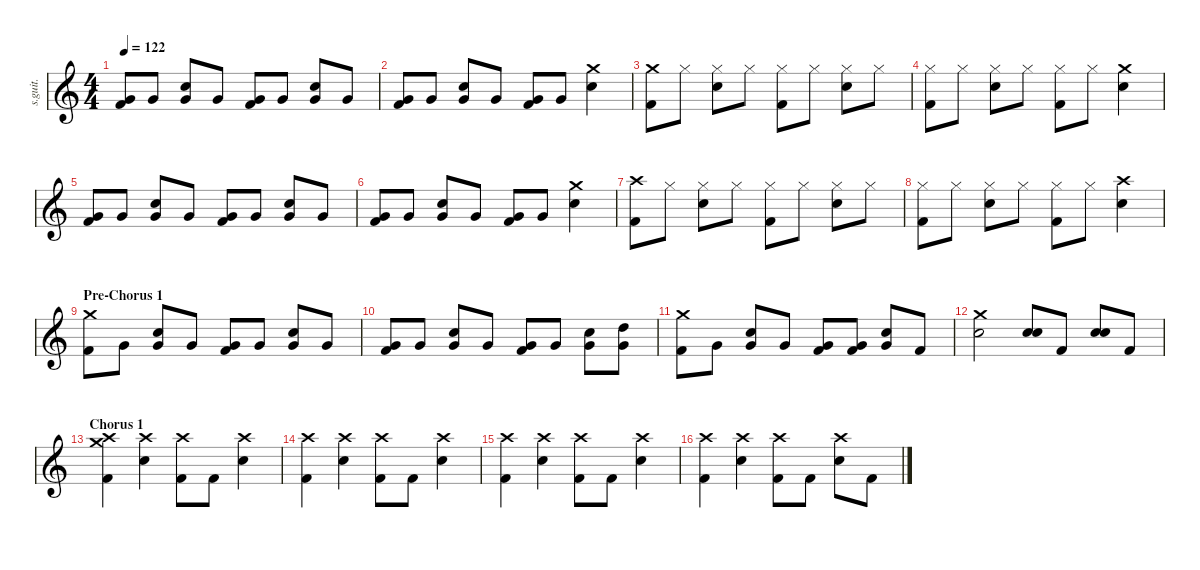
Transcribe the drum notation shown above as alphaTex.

\defaultSystemsLayout 4
\hideDynamics
\bracketExtendMode nobrackets
\track ("Neil Sanderson" "s.guit.") {instrument percussion}
\staff {score}
\articulation defaults
\ts (4 4)
\tempo 122
\clef g2
\ks c
("Very Low Tom (hit)" "Kick (hit) 2").8{lyrics (0 "") lyrics (1 "") lyrics (2 "") lyrics (3 "") lyrics (4 "") dy f} "Very Low Tom (hit)".8{lyrics (0 "") lyrics (1 "") lyrics (2 "") lyrics (3 "") lyrics (4 "")} ("Snare (hit) 2" "Very Low Tom (hit)").8{lyrics (0 "") lyrics (1 "") lyrics (2 "") lyrics (3 "") lyrics (4 "")} "Very Low Tom (hit)".8{lyrics (0 "") lyrics (1 "") lyrics (2 "") lyrics (3 "") lyrics (4 "")} ("Very Low Tom (hit)" "Kick (hit) 2").8{lyrics (0 "") lyrics (1 "") lyrics (2 "") lyrics (3 "") lyrics (4 "")} "Very Low Tom (hit)".8{lyrics (0 "") lyrics (1 "") lyrics (2 "") lyrics (3 "") lyrics (4 "")} ("Snare (hit) 2" "Very Low Tom (hit)").8{lyrics (0 "") lyrics (1 "") lyrics (2 "") lyrics (3 "") lyrics (4 "")} "Very Low Tom (hit)".8{lyrics (0 "") lyrics (1 "") lyrics (2 "") lyrics (3 "") lyrics (4 "")} |
("Very Low Tom (hit)" "Kick (hit) 2").8{lyrics (0 "") lyrics (1 "") lyrics (2 "") lyrics (3 "") lyrics (4 "")} "Very Low Tom (hit)".8{lyrics (0 "") lyrics (1 "") lyrics (2 "") lyrics (3 "") lyrics (4 "")} ("Snare (hit) 2" "Very Low Tom (hit)").8{lyrics (0 "") lyrics (1 "") lyrics (2 "") lyrics (3 "") lyrics (4 "")} "Very Low Tom (hit)".8{lyrics (0 "") lyrics (1 "") lyrics (2 "") lyrics (3 "") lyrics (4 "")} ("Very Low Tom (hit)" "Kick (hit) 2").8{lyrics (0 "") lyrics (1 "") lyrics (2 "") lyrics (3 "") lyrics (4 "")} "Very Low Tom (hit)".8{lyrics (0 "") lyrics (1 "") lyrics (2 "") lyrics (3 "") lyrics (4 "")} ("Crash medium (hit)" "Snare (hit) 2").4{lyrics (0 "") lyrics (1 "") lyrics (2 "") lyrics (3 "") lyrics (4 "")} |
("Crash medium (hit)" "Kick (hit) 2").8{lyrics (0 "") lyrics (1 "") lyrics (2 "") lyrics (3 "") lyrics (4 "")} "Hi-Hat (closed)".8{lyrics (0 "") lyrics (1 "") lyrics (2 "") lyrics (3 "") lyrics (4 "")} ("Hi-Hat (closed)" "Snare (hit) 2").8{lyrics (0 "") lyrics (1 "") lyrics (2 "") lyrics (3 "") lyrics (4 "")} "Hi-Hat (closed)".8{lyrics (0 "") lyrics (1 "") lyrics (2 "") lyrics (3 "") lyrics (4 "")} ("Hi-Hat (closed)" "Kick (hit) 2").8{lyrics (0 "") lyrics (1 "") lyrics (2 "") lyrics (3 "") lyrics (4 "")} "Hi-Hat (closed)".8{lyrics (0 "") lyrics (1 "") lyrics (2 "") lyrics (3 "") lyrics (4 "")} ("Hi-Hat (closed)" "Snare (hit) 2").8{lyrics (0 "") lyrics (1 "") lyrics (2 "") lyrics (3 "") lyrics (4 "")} "Hi-Hat (closed)".8{lyrics (0 "") lyrics (1 "") lyrics (2 "") lyrics (3 "") lyrics (4 "")} |
("Hi-Hat (closed)" "Kick (hit) 2").8{lyrics (0 "") lyrics (1 "") lyrics (2 "") lyrics (3 "") lyrics (4 "")} "Hi-Hat (closed)".8{lyrics (0 "") lyrics (1 "") lyrics (2 "") lyrics (3 "") lyrics (4 "")} ("Hi-Hat (closed)" "Snare (hit) 2").8{lyrics (0 "") lyrics (1 "") lyrics (2 "") lyrics (3 "") lyrics (4 "")} "Hi-Hat (closed)".8{lyrics (0 "") lyrics (1 "") lyrics (2 "") lyrics (3 "") lyrics (4 "")} ("Hi-Hat (closed)" "Kick (hit) 2").8{lyrics (0 "") lyrics (1 "") lyrics (2 "") lyrics (3 "") lyrics (4 "")} "Hi-Hat (closed)".8{lyrics (0 "") lyrics (1 "") lyrics (2 "") lyrics (3 "") lyrics (4 "")} ("Crash medium (hit)" "Snare (hit) 2").4{lyrics (0 "") lyrics (1 "") lyrics (2 "") lyrics (3 "") lyrics (4 "")} |
("Very Low Tom (hit)" "Kick (hit) 2").8{lyrics (0 "") lyrics (1 "") lyrics (2 "") lyrics (3 "") lyrics (4 "")} "Very Low Tom (hit)".8{lyrics (0 "") lyrics (1 "") lyrics (2 "") lyrics (3 "") lyrics (4 "")} ("Snare (hit) 2" "Very Low Tom (hit)").8{lyrics (0 "") lyrics (1 "") lyrics (2 "") lyrics (3 "") lyrics (4 "")} "Very Low Tom (hit)".8{lyrics (0 "") lyrics (1 "") lyrics (2 "") lyrics (3 "") lyrics (4 "")} ("Very Low Tom (hit)" "Kick (hit) 2").8{lyrics (0 "") lyrics (1 "") lyrics (2 "") lyrics (3 "") lyrics (4 "")} "Very Low Tom (hit)".8{lyrics (0 "") lyrics (1 "") lyrics (2 "") lyrics (3 "") lyrics (4 "")} ("Snare (hit) 2" "Very Low Tom (hit)").8{lyrics (0 "") lyrics (1 "") lyrics (2 "") lyrics (3 "") lyrics (4 "")} "Very Low Tom (hit)".8{lyrics (0 "") lyrics (1 "") lyrics (2 "") lyrics (3 "") lyrics (4 "")} |
("Very Low Tom (hit)" "Kick (hit) 2").8{lyrics (0 "") lyrics (1 "") lyrics (2 "") lyrics (3 "") lyrics (4 "")} "Very Low Tom (hit)".8{lyrics (0 "") lyrics (1 "") lyrics (2 "") lyrics (3 "") lyrics (4 "")} ("Snare (hit) 2" "Very Low Tom (hit)").8{lyrics (0 "") lyrics (1 "") lyrics (2 "") lyrics (3 "") lyrics (4 "")} "Very Low Tom (hit)".8{lyrics (0 "") lyrics (1 "") lyrics (2 "") lyrics (3 "") lyrics (4 "")} ("Very Low Tom (hit)" "Kick (hit) 2").8{lyrics (0 "") lyrics (1 "") lyrics (2 "") lyrics (3 "") lyrics (4 "")} "Very Low Tom (hit)".8{lyrics (0 "") lyrics (1 "") lyrics (2 "") lyrics (3 "") lyrics (4 "")} ("Crash medium (hit)" "Snare (hit) 2").4{lyrics (0 "") lyrics (1 "") lyrics (2 "") lyrics (3 "") lyrics (4 "")} |
("Crash high (hit)" "Kick (hit) 2").8{lyrics (0 "") lyrics (1 "") lyrics (2 "") lyrics (3 "") lyrics (4 "")} "Hi-Hat (closed)".8{lyrics (0 "") lyrics (1 "") lyrics (2 "") lyrics (3 "") lyrics (4 "")} ("Hi-Hat (closed)" "Snare (hit) 2").8{lyrics (0 "") lyrics (1 "") lyrics (2 "") lyrics (3 "") lyrics (4 "")} "Hi-Hat (closed)".8{lyrics (0 "") lyrics (1 "") lyrics (2 "") lyrics (3 "") lyrics (4 "")} ("Hi-Hat (closed)" "Kick (hit) 2").8{lyrics (0 "") lyrics (1 "") lyrics (2 "") lyrics (3 "") lyrics (4 "")} "Hi-Hat (closed)".8{lyrics (0 "") lyrics (1 "") lyrics (2 "") lyrics (3 "") lyrics (4 "")} ("Hi-Hat (closed)" "Snare (hit) 2").8{lyrics (0 "") lyrics (1 "") lyrics (2 "") lyrics (3 "") lyrics (4 "")} "Hi-Hat (closed)".8{lyrics (0 "") lyrics (1 "") lyrics (2 "") lyrics (3 "") lyrics (4 "")} |
("Hi-Hat (closed)" "Kick (hit) 2").8{lyrics (0 "") lyrics (1 "") lyrics (2 "") lyrics (3 "") lyrics (4 "")} "Hi-Hat (closed)".8{lyrics (0 "") lyrics (1 "") lyrics (2 "") lyrics (3 "") lyrics (4 "")} ("Hi-Hat (closed)" "Snare (hit) 2").8{lyrics (0 "") lyrics (1 "") lyrics (2 "") lyrics (3 "") lyrics (4 "")} "Hi-Hat (closed)".8{lyrics (0 "") lyrics (1 "") lyrics (2 "") lyrics (3 "") lyrics (4 "")} ("Hi-Hat (closed)" "Kick (hit) 2").8{lyrics (0 "") lyrics (1 "") lyrics (2 "") lyrics (3 "") lyrics (4 "")} "Hi-Hat (closed)".8{lyrics (0 "") lyrics (1 "") lyrics (2 "") lyrics (3 "") lyrics (4 "")} ("Crash high (hit)" "Snare (hit) 2").4{lyrics (0 "") lyrics (1 "") lyrics (2 "") lyrics (3 "") lyrics (4 "")} |
\section ("" "Pre-Chorus 1")
("Crash medium (hit)" "Kick (hit) 2").8{lyrics (0 "") lyrics (1 "") lyrics (2 "") lyrics (3 "") lyrics (4 "")} "Very Low Tom (hit)".8{lyrics (0 "") lyrics (1 "") lyrics (2 "") lyrics (3 "") lyrics (4 "")} ("Snare (hit) 2" "Very Low Tom (hit)").8{lyrics (0 "") lyrics (1 "") lyrics (2 "") lyrics (3 "") lyrics (4 "")} "Very Low Tom (hit)".8{lyrics (0 "") lyrics (1 "") lyrics (2 "") lyrics (3 "") lyrics (4 "")} ("Very Low Tom (hit)" "Kick (hit) 2").8{lyrics (0 "") lyrics (1 "") lyrics (2 "") lyrics (3 "") lyrics (4 "")} "Very Low Tom (hit)".8{lyrics (0 "") lyrics (1 "") lyrics (2 "") lyrics (3 "") lyrics (4 "")} ("Snare (hit) 2" "Very Low Tom (hit)").8{lyrics (0 "") lyrics (1 "") lyrics (2 "") lyrics (3 "") lyrics (4 "")} "Very Low Tom (hit)".8{lyrics (0 "") lyrics (1 "") lyrics (2 "") lyrics (3 "") lyrics (4 "")} |
("Very Low Tom (hit)" "Kick (hit) 2").8{lyrics (0 "") lyrics (1 "") lyrics (2 "") lyrics (3 "") lyrics (4 "")} "Very Low Tom (hit)".8{lyrics (0 "") lyrics (1 "") lyrics (2 "") lyrics (3 "") lyrics (4 "")} ("Snare (hit) 2" "Very Low Tom (hit)").8{lyrics (0 "") lyrics (1 "") lyrics (2 "") lyrics (3 "") lyrics (4 "")} "Very Low Tom (hit)".8{lyrics (0 "") lyrics (1 "") lyrics (2 "") lyrics (3 "") lyrics (4 "")} ("Very Low Tom (hit)" "Kick (hit) 2").8{lyrics (0 "") lyrics (1 "") lyrics (2 "") lyrics (3 "") lyrics (4 "")} "Very Low Tom (hit)".8{lyrics (0 "") lyrics (1 "") lyrics (2 "") lyrics (3 "") lyrics (4 "")} ("Snare (hit) 2" "Very Low Tom (hit)").8{lyrics (0 "") lyrics (1 "") lyrics (2 "") lyrics (3 "") lyrics (4 "")} ("High Tom (hit)" "Very Low Tom (hit)").8{lyrics (0 "") lyrics (1 "") lyrics (2 "") lyrics (3 "") lyrics (4 "")} |
("Crash medium (hit)" "Kick (hit) 2").8{lyrics (0 "") lyrics (1 "") lyrics (2 "") lyrics (3 "") lyrics (4 "")} "Very Low Tom (hit)".8{lyrics (0 "") lyrics (1 "") lyrics (2 "") lyrics (3 "") lyrics (4 "")} ("Snare (hit) 2" "Very Low Tom (hit)").8{lyrics (0 "") lyrics (1 "") lyrics (2 "") lyrics (3 "") lyrics (4 "")} "Very Low Tom (hit)".8{lyrics (0 "") lyrics (1 "") lyrics (2 "") lyrics (3 "") lyrics (4 "")} ("Very Low Tom (hit)" "Kick (hit) 2").8{lyrics (0 "") lyrics (1 "") lyrics (2 "") lyrics (3 "") lyrics (4 "")} ("Very Low Tom (hit)" "Kick (hit) 2").8{lyrics (0 "") lyrics (1 "") lyrics (2 "") lyrics (3 "") lyrics (4 "")} ("Snare (hit) 2" "Very Low Tom (hit)").8{lyrics (0 "") lyrics (1 "") lyrics (2 "") lyrics (3 "") lyrics (4 "")} "Kick (hit) 2".8{lyrics (0 "") lyrics (1 "") lyrics (2 "") lyrics (3 "") lyrics (4 "")} |
("Crash medium (hit)" "Snare (hit) 2").2{lyrics (0 "") lyrics (1 "") lyrics (2 "") lyrics (3 "") lyrics (4 "")} ("Snare (hit) 2" "Snare (hit) 2").8{bd 30 lyrics (0 "") lyrics (1 "") lyrics (2 "") lyrics (3 "") lyrics (4 "")} "Kick (hit) 2".8{lyrics (0 "") lyrics (1 "") lyrics (2 "") lyrics (3 "") lyrics (4 "")} ("Snare (hit) 2" "Snare (hit) 2").8{bd 30 lyrics (0 "") lyrics (1 "") lyrics (2 "") lyrics (3 "") lyrics (4 "")} "Kick (hit) 2".8{lyrics (0 "") lyrics (1 "") lyrics (2 "") lyrics (3 "") lyrics (4 "")} |
\section ("" "Chorus 1")
("Crash high (hit)" "Crash medium (hit)" "Kick (hit) 2").4{lyrics (0 "") lyrics (1 "") lyrics (2 "") lyrics (3 "") lyrics (4 "")} ("Crash high (hit)" "Snare (hit) 2").4{lyrics (0 "") lyrics (1 "") lyrics (2 "") lyrics (3 "") lyrics (4 "")} ("Crash high (hit)" "Kick (hit) 2").8{lyrics (0 "") lyrics (1 "") lyrics (2 "") lyrics (3 "") lyrics (4 "")} "Kick (hit) 2".8{lyrics (0 "") lyrics (1 "") lyrics (2 "") lyrics (3 "") lyrics (4 "")} ("Crash high (hit)" "Snare (hit) 2").4{lyrics (0 "") lyrics (1 "") lyrics (2 "") lyrics (3 "") lyrics (4 "")} |
("Crash high (hit)" "Kick (hit) 2").4{lyrics (0 "") lyrics (1 "") lyrics (2 "") lyrics (3 "") lyrics (4 "")} ("Crash high (hit)" "Snare (hit) 2").4{lyrics (0 "") lyrics (1 "") lyrics (2 "") lyrics (3 "") lyrics (4 "")} ("Crash high (hit)" "Kick (hit) 2").8{lyrics (0 "") lyrics (1 "") lyrics (2 "") lyrics (3 "") lyrics (4 "")} "Kick (hit) 2".8{lyrics (0 "") lyrics (1 "") lyrics (2 "") lyrics (3 "") lyrics (4 "")} ("Crash high (hit)" "Snare (hit) 2").4{lyrics (0 "") lyrics (1 "") lyrics (2 "") lyrics (3 "") lyrics (4 "")} |
("Crash high (hit)" "Kick (hit) 2").4{lyrics (0 "") lyrics (1 "") lyrics (2 "") lyrics (3 "") lyrics (4 "")} ("Crash high (hit)" "Snare (hit) 2").4{lyrics (0 "") lyrics (1 "") lyrics (2 "") lyrics (3 "") lyrics (4 "")} ("Crash high (hit)" "Kick (hit) 2").8{lyrics (0 "") lyrics (1 "") lyrics (2 "") lyrics (3 "") lyrics (4 "")} "Kick (hit) 2".8{lyrics (0 "") lyrics (1 "") lyrics (2 "") lyrics (3 "") lyrics (4 "")} ("Crash high (hit)" "Snare (hit) 2").4{lyrics (0 "") lyrics (1 "") lyrics (2 "") lyrics (3 "") lyrics (4 "")} |
("Crash high (hit)" "Kick (hit) 2").4{lyrics (0 "") lyrics (1 "") lyrics (2 "") lyrics (3 "") lyrics (4 "")} ("Crash high (hit)" "Snare (hit) 2").4{lyrics (0 "") lyrics (1 "") lyrics (2 "") lyrics (3 "") lyrics (4 "")} ("Crash high (hit)" "Kick (hit) 2").8{lyrics (0 "") lyrics (1 "") lyrics (2 "") lyrics (3 "") lyrics (4 "")} "Kick (hit) 2".8{lyrics (0 "") lyrics (1 "") lyrics (2 "") lyrics (3 "") lyrics (4 "")} ("Crash high (hit)" "Snare (hit) 2").8{lyrics (0 "") lyrics (1 "") lyrics (2 "") lyrics (3 "") lyrics (4 "")} "Kick (hit) 2".8{lyrics (0 "") lyrics (1 "") lyrics (2 "") lyrics (3 "") lyrics (4 "")}
